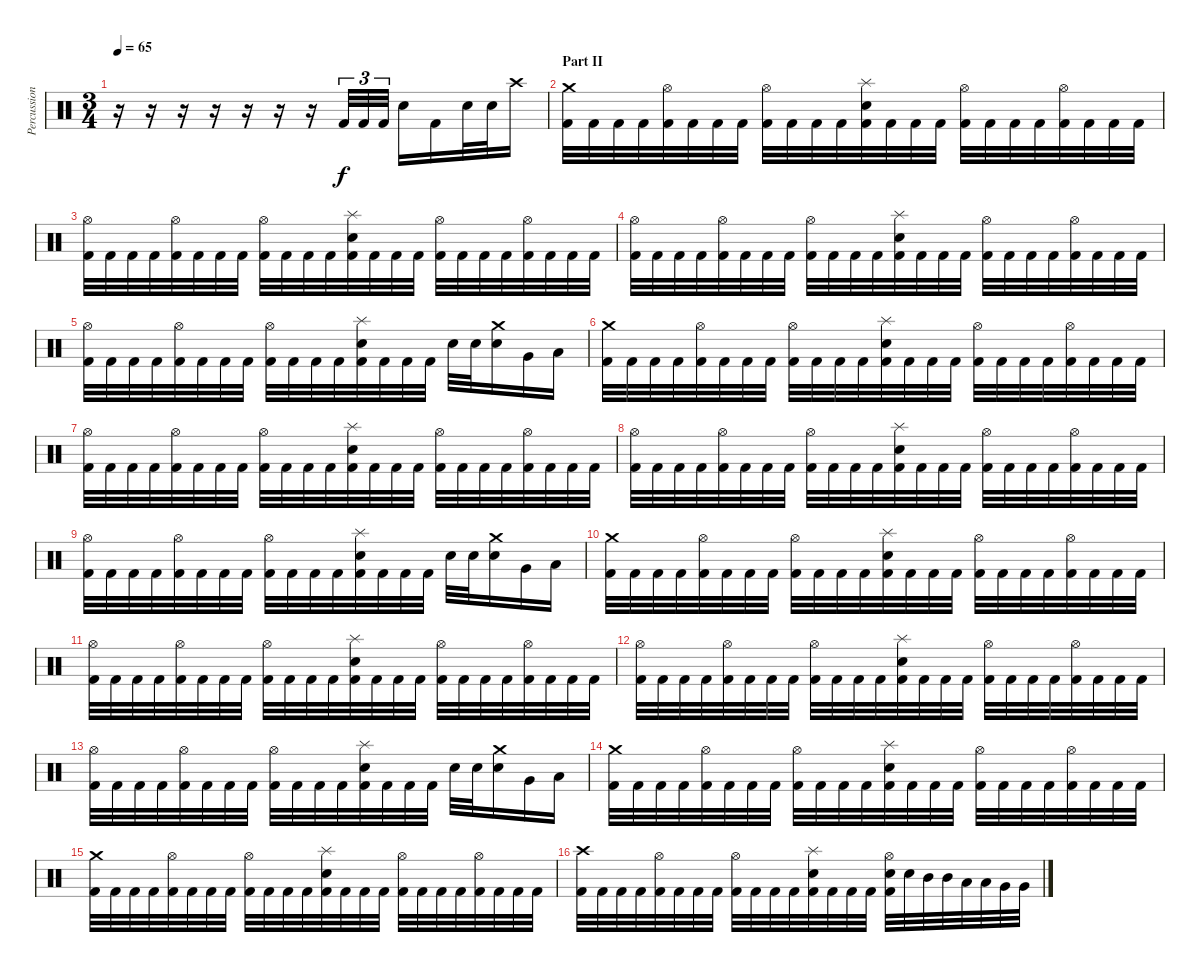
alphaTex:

\track ("Percussion" "Percussion") {instrument percussion}
\staff {score}
\articulation defaults
\ts (3 4)
\tempo 65
\clef neutral
\ks c
r.16{dy f} r.16 r.16 r.16 r.16 r.16 r.16 "Kick (hit) 2".32{tu (3 2)} "Kick (hit) 2".32{tu (3 2)} "Kick (hit) 2".32{tu (3 2)} "Electric Snare (hit)".16 "Kick (hit) 2".16 "Electric Snare (hit)".32 "Electric Snare (hit)".32 "Crash high (hit)".16 |
\section ("" "Part II")
("Crash medium (hit)" "Kick (hit) 2").32 "Kick (hit) 2".32 "Kick (hit) 2".32 "Kick (hit) 2".32 ("Hi-Hat (open)" "Kick (hit) 2").32 "Kick (hit) 2".32 "Kick (hit) 2".32 "Kick (hit) 2".32 ("Hi-Hat (open)" "Kick (hit) 2").32 "Kick (hit) 2".32 "Kick (hit) 2".32 "Kick (hit) 2".32 ("Splash (hit)" "Electric Snare (hit)" "Kick (hit) 2").32 "Kick (hit) 2".32 "Kick (hit) 2".32 "Kick (hit) 2".32 ("Hi-Hat (open)" "Kick (hit) 2").32 "Kick (hit) 2".32 "Kick (hit) 2".32 "Kick (hit) 2".32 ("Hi-Hat (open)" "Kick (hit) 2").32 "Kick (hit) 2".32 "Kick (hit) 2".32 "Kick (hit) 2".32 |
("Hi-Hat (open)" "Kick (hit) 2").32 "Kick (hit) 2".32 "Kick (hit) 2".32 "Kick (hit) 2".32 ("Hi-Hat (open)" "Kick (hit) 2").32 "Kick (hit) 2".32 "Kick (hit) 2".32 "Kick (hit) 2".32 ("Hi-Hat (open)" "Kick (hit) 2").32 "Kick (hit) 2".32 "Kick (hit) 2".32 "Kick (hit) 2".32 ("Splash (hit)" "Electric Snare (hit)" "Kick (hit) 2").32 "Kick (hit) 2".32 "Kick (hit) 2".32 "Kick (hit) 2".32 ("Hi-Hat (open)" "Kick (hit) 2").32 "Kick (hit) 2".32 "Kick (hit) 2".32 "Kick (hit) 2".32 ("Hi-Hat (open)" "Kick (hit) 2").32 "Kick (hit) 2".32 "Kick (hit) 2".32 "Kick (hit) 2".32 |
("Hi-Hat (open)" "Kick (hit) 2").32 "Kick (hit) 2".32 "Kick (hit) 2".32 "Kick (hit) 2".32 ("Hi-Hat (open)" "Kick (hit) 2").32 "Kick (hit) 2".32 "Kick (hit) 2".32 "Kick (hit) 2".32 ("Hi-Hat (open)" "Kick (hit) 2").32 "Kick (hit) 2".32 "Kick (hit) 2".32 "Kick (hit) 2".32 ("Splash (hit)" "Electric Snare (hit)" "Kick (hit) 2").32 "Kick (hit) 2".32 "Kick (hit) 2".32 "Kick (hit) 2".32 ("Hi-Hat (open)" "Kick (hit) 2").32 "Kick (hit) 2".32 "Kick (hit) 2".32 "Kick (hit) 2".32 ("Hi-Hat (open)" "Kick (hit) 2").32 "Kick (hit) 2".32 "Kick (hit) 2".32 "Kick (hit) 2".32 |
("Hi-Hat (open)" "Kick (hit) 2").32 "Kick (hit) 2".32 "Kick (hit) 2".32 "Kick (hit) 2".32 ("Hi-Hat (open)" "Kick (hit) 2").32 "Kick (hit) 2".32 "Kick (hit) 2".32 "Kick (hit) 2".32 ("Hi-Hat (open)" "Kick (hit) 2").32 "Kick (hit) 2".32 "Kick (hit) 2".32 "Kick (hit) 2".32 ("Splash (hit)" "Electric Snare (hit)" "Kick (hit) 2").32 "Kick (hit) 2".32 "Kick (hit) 2".32 "Kick (hit) 2".32 "Electric Snare (hit)".32 "Electric Snare (hit)".32 ("Crash medium (hit)" "Electric Snare (hit)").16 "Very Low Tom (hit)".16 "Low Floor Tom (hit)".16 |
("Crash medium (hit)" "Kick (hit) 2").32 "Kick (hit) 2".32 "Kick (hit) 2".32 "Kick (hit) 2".32 ("Hi-Hat (open)" "Kick (hit) 2").32 "Kick (hit) 2".32 "Kick (hit) 2".32 "Kick (hit) 2".32 ("Hi-Hat (open)" "Kick (hit) 2").32 "Kick (hit) 2".32 "Kick (hit) 2".32 "Kick (hit) 2".32 ("Splash (hit)" "Electric Snare (hit)" "Kick (hit) 2").32 "Kick (hit) 2".32 "Kick (hit) 2".32 "Kick (hit) 2".32 ("Hi-Hat (open)" "Kick (hit) 2").32 "Kick (hit) 2".32 "Kick (hit) 2".32 "Kick (hit) 2".32 ("Hi-Hat (open)" "Kick (hit) 2").32 "Kick (hit) 2".32 "Kick (hit) 2".32 "Kick (hit) 2".32 |
("Hi-Hat (open)" "Kick (hit) 2").32 "Kick (hit) 2".32 "Kick (hit) 2".32 "Kick (hit) 2".32 ("Hi-Hat (open)" "Kick (hit) 2").32 "Kick (hit) 2".32 "Kick (hit) 2".32 "Kick (hit) 2".32 ("Hi-Hat (open)" "Kick (hit) 2").32 "Kick (hit) 2".32 "Kick (hit) 2".32 "Kick (hit) 2".32 ("Splash (hit)" "Electric Snare (hit)" "Kick (hit) 2").32 "Kick (hit) 2".32 "Kick (hit) 2".32 "Kick (hit) 2".32 ("Hi-Hat (open)" "Kick (hit) 2").32 "Kick (hit) 2".32 "Kick (hit) 2".32 "Kick (hit) 2".32 ("Hi-Hat (open)" "Kick (hit) 2").32 "Kick (hit) 2".32 "Kick (hit) 2".32 "Kick (hit) 2".32 |
("Hi-Hat (open)" "Kick (hit) 2").32 "Kick (hit) 2".32 "Kick (hit) 2".32 "Kick (hit) 2".32 ("Hi-Hat (open)" "Kick (hit) 2").32 "Kick (hit) 2".32 "Kick (hit) 2".32 "Kick (hit) 2".32 ("Hi-Hat (open)" "Kick (hit) 2").32 "Kick (hit) 2".32 "Kick (hit) 2".32 "Kick (hit) 2".32 ("Splash (hit)" "Electric Snare (hit)" "Kick (hit) 2").32 "Kick (hit) 2".32 "Kick (hit) 2".32 "Kick (hit) 2".32 ("Hi-Hat (open)" "Kick (hit) 2").32 "Kick (hit) 2".32 "Kick (hit) 2".32 "Kick (hit) 2".32 ("Hi-Hat (open)" "Kick (hit) 2").32 "Kick (hit) 2".32 "Kick (hit) 2".32 "Kick (hit) 2".32 |
("Hi-Hat (open)" "Kick (hit) 2").32 "Kick (hit) 2".32 "Kick (hit) 2".32 "Kick (hit) 2".32 ("Hi-Hat (open)" "Kick (hit) 2").32 "Kick (hit) 2".32 "Kick (hit) 2".32 "Kick (hit) 2".32 ("Hi-Hat (open)" "Kick (hit) 2").32 "Kick (hit) 2".32 "Kick (hit) 2".32 "Kick (hit) 2".32 ("Splash (hit)" "Electric Snare (hit)" "Kick (hit) 2").32 "Kick (hit) 2".32 "Kick (hit) 2".32 "Kick (hit) 2".32 "Electric Snare (hit)".32 "Electric Snare (hit)".32 ("Crash medium (hit)" "Electric Snare (hit)").16 "Very Low Tom (hit)".16 "Low Floor Tom (hit)".16 |
("Crash medium (hit)" "Kick (hit) 2").32{volume 16} "Kick (hit) 2".32 "Kick (hit) 2".32 "Kick (hit) 2".32 ("Hi-Hat (open)" "Kick (hit) 2").32 "Kick (hit) 2".32 "Kick (hit) 2".32 "Kick (hit) 2".32 ("Hi-Hat (open)" "Kick (hit) 2").32 "Kick (hit) 2".32 "Kick (hit) 2".32 "Kick (hit) 2".32 ("Splash (hit)" "Electric Snare (hit)" "Kick (hit) 2").32 "Kick (hit) 2".32 "Kick (hit) 2".32 "Kick (hit) 2".32 ("Hi-Hat (open)" "Kick (hit) 2").32 "Kick (hit) 2".32 "Kick (hit) 2".32 "Kick (hit) 2".32 ("Hi-Hat (open)" "Kick (hit) 2").32 "Kick (hit) 2".32 "Kick (hit) 2".32 "Kick (hit) 2".32 |
("Hi-Hat (open)" "Kick (hit) 2").32 "Kick (hit) 2".32 "Kick (hit) 2".32 "Kick (hit) 2".32 ("Hi-Hat (open)" "Kick (hit) 2").32 "Kick (hit) 2".32 "Kick (hit) 2".32 "Kick (hit) 2".32 ("Hi-Hat (open)" "Kick (hit) 2").32 "Kick (hit) 2".32 "Kick (hit) 2".32 "Kick (hit) 2".32 ("Splash (hit)" "Electric Snare (hit)" "Kick (hit) 2").32 "Kick (hit) 2".32 "Kick (hit) 2".32 "Kick (hit) 2".32 ("Hi-Hat (open)" "Kick (hit) 2").32 "Kick (hit) 2".32 "Kick (hit) 2".32 "Kick (hit) 2".32 ("Hi-Hat (open)" "Kick (hit) 2").32 "Kick (hit) 2".32 "Kick (hit) 2".32 "Kick (hit) 2".32 |
("Hi-Hat (open)" "Kick (hit) 2").32 "Kick (hit) 2".32 "Kick (hit) 2".32 "Kick (hit) 2".32 ("Hi-Hat (open)" "Kick (hit) 2").32 "Kick (hit) 2".32 "Kick (hit) 2".32 "Kick (hit) 2".32 ("Hi-Hat (open)" "Kick (hit) 2").32 "Kick (hit) 2".32 "Kick (hit) 2".32 "Kick (hit) 2".32 ("Splash (hit)" "Electric Snare (hit)" "Kick (hit) 2").32 "Kick (hit) 2".32 "Kick (hit) 2".32 "Kick (hit) 2".32 ("Hi-Hat (open)" "Kick (hit) 2").32 "Kick (hit) 2".32 "Kick (hit) 2".32 "Kick (hit) 2".32 ("Hi-Hat (open)" "Kick (hit) 2").32 "Kick (hit) 2".32 "Kick (hit) 2".32 "Kick (hit) 2".32 |
("Hi-Hat (open)" "Kick (hit) 2").32 "Kick (hit) 2".32 "Kick (hit) 2".32 "Kick (hit) 2".32 ("Hi-Hat (open)" "Kick (hit) 2").32 "Kick (hit) 2".32 "Kick (hit) 2".32 "Kick (hit) 2".32 ("Hi-Hat (open)" "Kick (hit) 2").32 "Kick (hit) 2".32 "Kick (hit) 2".32 "Kick (hit) 2".32 ("Splash (hit)" "Electric Snare (hit)" "Kick (hit) 2").32 "Kick (hit) 2".32 "Kick (hit) 2".32 "Kick (hit) 2".32 "Electric Snare (hit)".32 "Electric Snare (hit)".32 ("Crash medium (hit)" "Electric Snare (hit)").16 "Very Low Tom (hit)".16 "Low Floor Tom (hit)".16 |
("Crash medium (hit)" "Kick (hit) 2").32 "Kick (hit) 2".32 "Kick (hit) 2".32 "Kick (hit) 2".32 ("Hi-Hat (open)" "Kick (hit) 2").32 "Kick (hit) 2".32 "Kick (hit) 2".32 "Kick (hit) 2".32 ("Hi-Hat (open)" "Kick (hit) 2").32 "Kick (hit) 2".32 "Kick (hit) 2".32 "Kick (hit) 2".32 ("Splash (hit)" "Electric Snare (hit)" "Kick (hit) 2").32 "Kick (hit) 2".32 "Kick (hit) 2".32 "Kick (hit) 2".32 ("Hi-Hat (open)" "Kick (hit) 2").32 "Kick (hit) 2".32 "Kick (hit) 2".32 "Kick (hit) 2".32 ("Hi-Hat (open)" "Kick (hit) 2").32 "Kick (hit) 2".32 "Kick (hit) 2".32 "Kick (hit) 2".32 |
("Crash medium (hit)" "Kick (hit) 2").32 "Kick (hit) 2".32 "Kick (hit) 2".32 "Kick (hit) 2".32 ("Hi-Hat (open)" "Kick (hit) 2").32 "Kick (hit) 2".32 "Kick (hit) 2".32 "Kick (hit) 2".32 ("Hi-Hat (open)" "Kick (hit) 2").32 "Kick (hit) 2".32 "Kick (hit) 2".32 "Kick (hit) 2".32 ("Splash (hit)" "Electric Snare (hit)" "Kick (hit) 2").32 "Kick (hit) 2".32 "Kick (hit) 2".32 "Kick (hit) 2".32 ("Hi-Hat (open)" "Kick (hit) 2").32 "Kick (hit) 2".32 "Kick (hit) 2".32 "Kick (hit) 2".32 ("Hi-Hat (open)" "Kick (hit) 2").32 "Kick (hit) 2".32 "Kick (hit) 2".32 "Kick (hit) 2".32 |
("Crash high (hit)" "Kick (hit) 2").32 "Kick (hit) 2".32 "Kick (hit) 2".32 "Kick (hit) 2".32 ("Hi-Hat (open)" "Kick (hit) 2").32 "Kick (hit) 2".32 "Kick (hit) 2".32 "Kick (hit) 2".32 ("Hi-Hat (open)" "Kick (hit) 2").32 "Kick (hit) 2".32 "Kick (hit) 2".32 "Kick (hit) 2".32 ("Splash (hit)" "Electric Snare (hit)" "Kick (hit) 2").32 "Kick (hit) 2".32 "Kick (hit) 2".32 "Kick (hit) 2".32 ("Hi-Hat (open)" "Electric Snare (hit)" "Kick (hit) 2").32 "Electric Snare (hit)".32 "Mid Tom (hit)".32 "Mid Tom (hit)".32 "Low Tom (hit)".32 "Low Tom (hit)".32 "Very Low Tom (hit)".32 "Very Low Tom (hit)".32
